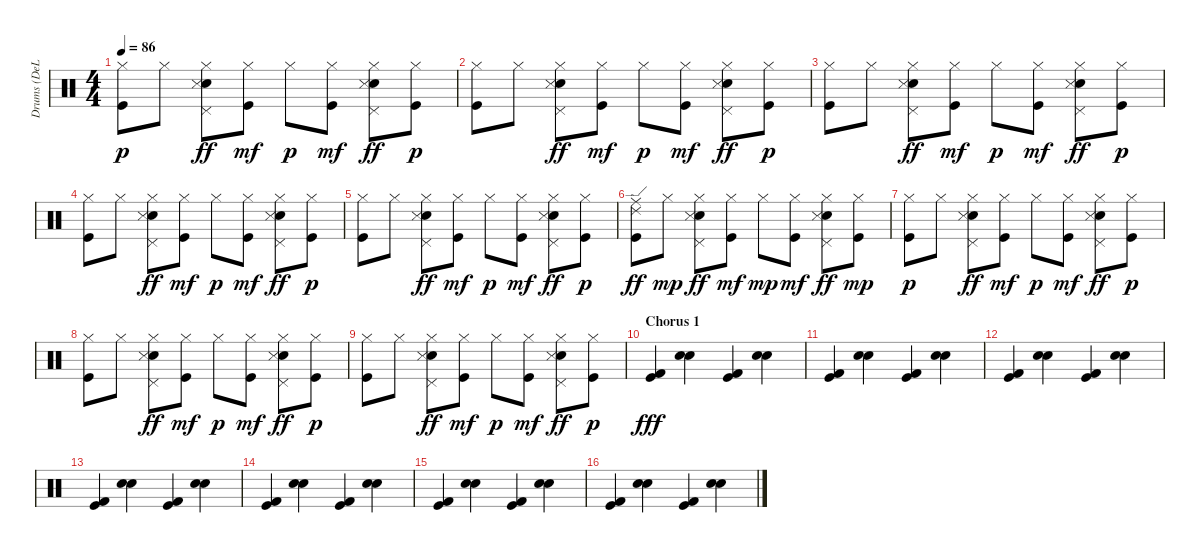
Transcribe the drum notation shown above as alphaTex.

\track ("Drums (DeLorenzo)" "Drums (DeL") {instrument percussion}
\staff {score}
\articulation defaults
\ts (4 4)
\tempo 86
\clef neutral
\ks c
("Hi-Hat (closed)" "Kick (hit)").8{dy p} "Hi-Hat (closed)".8 ("Hi-Hat (closed)" "Pedal Hi-Hat (hit)" "Electric Snare (hit)" "Snare (side stick) 3").8{dy ff} ("Hi-Hat (closed)" "Kick (hit)").8{dy mf} "Hi-Hat (closed)".8{dy p} ("Hi-Hat (closed)" "Kick (hit)").8{dy mf} ("Hi-Hat (closed)" "Pedal Hi-Hat (hit)" "Electric Snare (hit)" "Snare (side stick) 3").8{dy ff} ("Hi-Hat (closed)" "Kick (hit)").8{dy p} |
("Hi-Hat (closed)" "Kick (hit)").8 "Hi-Hat (closed)".8 ("Hi-Hat (closed)" "Pedal Hi-Hat (hit)" "Electric Snare (hit)" "Snare (side stick) 3").8{dy ff} ("Hi-Hat (closed)" "Kick (hit)").8{dy mf} "Hi-Hat (closed)".8{dy p} ("Hi-Hat (closed)" "Kick (hit)").8{dy mf} ("Hi-Hat (closed)" "Pedal Hi-Hat (hit)" "Electric Snare (hit)" "Snare (side stick) 3").8{dy ff} ("Hi-Hat (closed)" "Kick (hit)").8{dy p} |
("Hi-Hat (closed)" "Kick (hit)").8 "Hi-Hat (closed)".8 ("Hi-Hat (closed)" "Pedal Hi-Hat (hit)" "Electric Snare (hit)" "Snare (side stick) 3").8{dy ff} ("Hi-Hat (closed)" "Kick (hit)").8{dy mf} "Hi-Hat (closed)".8{dy p} ("Hi-Hat (closed)" "Kick (hit)").8{dy mf} ("Hi-Hat (closed)" "Pedal Hi-Hat (hit)" "Electric Snare (hit)" "Snare (side stick) 3").8{dy ff} ("Hi-Hat (closed)" "Kick (hit)").8{dy p} |
("Hi-Hat (closed)" "Kick (hit)").8 "Hi-Hat (closed)".8 ("Hi-Hat (closed)" "Pedal Hi-Hat (hit)" "Electric Snare (hit)" "Snare (side stick) 3").8{dy ff} ("Hi-Hat (closed)" "Kick (hit)").8{dy mf} "Hi-Hat (closed)".8{dy p} ("Hi-Hat (closed)" "Kick (hit)").8{dy mf} ("Hi-Hat (closed)" "Pedal Hi-Hat (hit)" "Electric Snare (hit)" "Snare (side stick) 3").8{dy ff} ("Hi-Hat (closed)" "Kick (hit)").8{dy p} |
("Hi-Hat (closed)" "Kick (hit)").8 "Hi-Hat (closed)".8 ("Hi-Hat (closed)" "Pedal Hi-Hat (hit)" "Electric Snare (hit)" "Snare (side stick) 3").8{dy ff} ("Hi-Hat (closed)" "Kick (hit)").8{dy mf} "Hi-Hat (closed)".8{dy p} ("Hi-Hat (closed)" "Kick (hit)").8{dy mf} ("Hi-Hat (closed)" "Pedal Hi-Hat (hit)" "Electric Snare (hit)" "Snare (side stick) 3").8{dy ff} ("Hi-Hat (closed)" "Kick (hit)").8{dy p} |
("Ride (edge) 2" "Ride (middle)" "Kick (hit)").8{dy ff} "Hi-Hat (closed)".8{dy mp} ("Hi-Hat (closed)" "Pedal Hi-Hat (hit)" "Electric Snare (hit)" "Snare (side stick) 3").8{dy ff} ("Hi-Hat (closed)" "Kick (hit)").8{dy mf} "Hi-Hat (closed)".8{dy mp} ("Hi-Hat (closed)" "Kick (hit)").8{dy mf} ("Hi-Hat (closed)" "Pedal Hi-Hat (hit)" "Electric Snare (hit)" "Snare (side stick) 3").8{dy ff} ("Hi-Hat (closed)" "Kick (hit)").8{dy mp} |
("Hi-Hat (closed)" "Kick (hit)").8{dy p} "Hi-Hat (closed)".8 ("Hi-Hat (closed)" "Pedal Hi-Hat (hit)" "Electric Snare (hit)" "Snare (side stick) 3").8{dy ff} ("Hi-Hat (closed)" "Kick (hit)").8{dy mf} "Hi-Hat (closed)".8{dy p} ("Hi-Hat (closed)" "Kick (hit)").8{dy mf} ("Hi-Hat (closed)" "Pedal Hi-Hat (hit)" "Electric Snare (hit)" "Snare (side stick) 3").8{dy ff} ("Hi-Hat (closed)" "Kick (hit)").8{dy p} |
("Hi-Hat (closed)" "Kick (hit)").8 "Hi-Hat (closed)".8 ("Hi-Hat (closed)" "Pedal Hi-Hat (hit)" "Electric Snare (hit)" "Snare (side stick) 3").8{dy ff} ("Hi-Hat (closed)" "Kick (hit)").8{dy mf} "Hi-Hat (closed)".8{dy p} ("Hi-Hat (closed)" "Kick (hit)").8{dy mf} ("Hi-Hat (closed)" "Pedal Hi-Hat (hit)" "Electric Snare (hit)" "Snare (side stick) 3").8{dy ff} ("Hi-Hat (closed)" "Kick (hit)").8{dy p} |
("Hi-Hat (closed)" "Kick (hit)").8 "Hi-Hat (closed)".8 ("Hi-Hat (closed)" "Pedal Hi-Hat (hit)" "Electric Snare (hit)" "Snare (side stick) 3").8{dy ff} ("Hi-Hat (closed)" "Kick (hit)").8{dy mf} "Hi-Hat (closed)".8{dy p} ("Hi-Hat (closed)" "Kick (hit)").8{dy mf} ("Hi-Hat (closed)" "Pedal Hi-Hat (hit)" "Electric Snare (hit)" "Snare (side stick) 3").8{dy ff} ("Hi-Hat (closed)" "Kick (hit)").8{dy p} |
\section ("" "Chorus 1")
("Kick (hit)" "Kick (hit) 2").4{dy fff} ("Snare (hit) 2" "Electric Snare (hit)").4 ("Kick (hit)" "Kick (hit) 2").4 ("Snare (hit) 2" "Electric Snare (hit)").4 |
("Kick (hit)" "Kick (hit) 2").4 ("Snare (hit) 2" "Electric Snare (hit)").4 ("Kick (hit)" "Kick (hit) 2").4 ("Snare (hit) 2" "Electric Snare (hit)").4 |
("Kick (hit)" "Kick (hit) 2").4 ("Snare (hit) 2" "Electric Snare (hit)").4 ("Kick (hit)" "Kick (hit) 2").4 ("Snare (hit) 2" "Electric Snare (hit)").4 |
("Kick (hit)" "Kick (hit) 2").4 ("Snare (hit) 2" "Electric Snare (hit)").4 ("Kick (hit)" "Kick (hit) 2").4 ("Snare (hit) 2" "Electric Snare (hit)").4 |
("Kick (hit)" "Kick (hit) 2").4 ("Snare (hit) 2" "Electric Snare (hit)").4 ("Kick (hit)" "Kick (hit) 2").4 ("Snare (hit) 2" "Electric Snare (hit)").4 |
("Kick (hit)" "Kick (hit) 2").4 ("Snare (hit) 2" "Electric Snare (hit)").4 ("Kick (hit)" "Kick (hit) 2").4 ("Snare (hit) 2" "Electric Snare (hit)").4 |
("Kick (hit)" "Kick (hit) 2").4 ("Snare (hit) 2" "Electric Snare (hit)").4 ("Kick (hit)" "Kick (hit) 2").4 ("Snare (hit) 2" "Electric Snare (hit)").4
